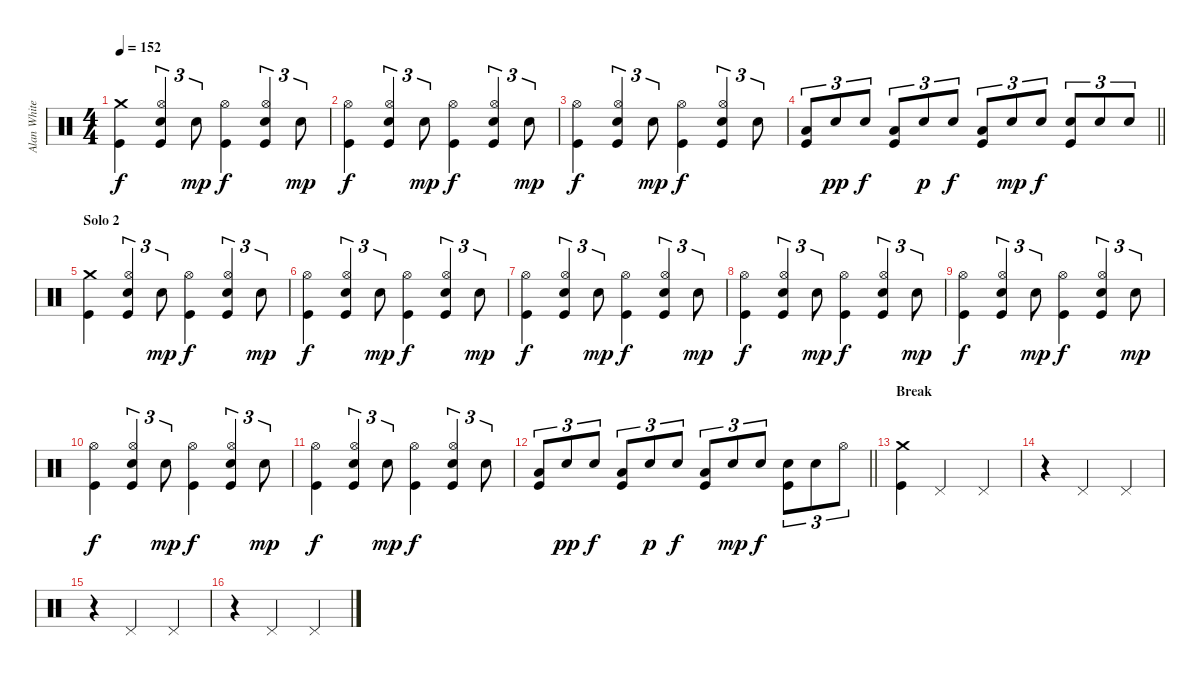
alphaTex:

\track ("Alan White" "Alan White") {instrument percussion}
\staff {score}
\articulation defaults
\ts (4 4)
\tempo 152
\clef neutral
\ks c
("Crash medium (hit)" "Kick (hit)").4{dy f} ("Hi-Hat (open)" "Electric Snare (hit)" "Kick (hit)").4{tu (3 2)} "Electric Snare (hit)".8{tu (3 2) dy mp} ("Hi-Hat (open)" "Kick (hit)").4{dy f} ("Hi-Hat (open)" "Electric Snare (hit)" "Kick (hit)").4{tu (3 2)} "Electric Snare (hit)".8{tu (3 2) dy mp} |
("Hi-Hat (open)" "Kick (hit)").4{dy f} ("Hi-Hat (open)" "Electric Snare (hit)" "Kick (hit)").4{tu (3 2)} "Electric Snare (hit)".8{tu (3 2) dy mp} ("Hi-Hat (open)" "Kick (hit)").4{dy f} ("Hi-Hat (open)" "Electric Snare (hit)" "Kick (hit)").4{tu (3 2)} "Electric Snare (hit)".8{tu (3 2) dy mp} |
("Hi-Hat (open)" "Kick (hit)").4{dy f} ("Hi-Hat (open)" "Electric Snare (hit)" "Kick (hit)").4{tu (3 2)} "Electric Snare (hit)".8{tu (3 2) dy mp} ("Hi-Hat (open)" "Kick (hit)").4{dy f} ("Hi-Hat (open)" "Electric Snare (hit)" "Kick (hit)").4{tu (3 2)} "Electric Snare (hit)".8{tu (3 2)} |
\barLineRight lightlight
("Low Tom (hit)" "Kick (hit)").8{tu (3 2)} "Electric Snare (hit)".8{tu (3 2) dy pp} "Electric Snare (hit)".8{tu (3 2) dy f} ("Low Tom (hit)" "Kick (hit)").8{tu (3 2)} "Electric Snare (hit)".8{tu (3 2) dy p} "Electric Snare (hit)".8{tu (3 2) dy f} ("Low Floor Tom (hit)" "Kick (hit)").8{tu (3 2)} "Electric Snare (hit)".8{tu (3 2) dy mp} "Electric Snare (hit)".8{tu (3 2) dy f} ("Electric Snare (hit)" "Kick (hit)").8{tu (3 2)} "Electric Snare (hit)".8{tu (3 2)} "Electric Snare (hit)".8{tu (3 2)} |
\section ("" "Solo 2")
("Crash medium (hit)" "Kick (hit)").4 ("Hi-Hat (open)" "Electric Snare (hit)" "Kick (hit)").4{tu (3 2)} "Electric Snare (hit)".8{tu (3 2) dy mp} ("Hi-Hat (open)" "Kick (hit)").4{dy f} ("Hi-Hat (open)" "Electric Snare (hit)" "Kick (hit)").4{tu (3 2)} "Electric Snare (hit)".8{tu (3 2) dy mp} |
("Hi-Hat (open)" "Kick (hit)").4{dy f} ("Hi-Hat (open)" "Electric Snare (hit)" "Kick (hit)").4{tu (3 2)} "Electric Snare (hit)".8{tu (3 2) dy mp} ("Hi-Hat (open)" "Kick (hit)").4{dy f} ("Hi-Hat (open)" "Electric Snare (hit)" "Kick (hit)").4{tu (3 2)} "Electric Snare (hit)".8{tu (3 2) dy mp} |
("Hi-Hat (open)" "Kick (hit)").4{dy f} ("Hi-Hat (open)" "Electric Snare (hit)" "Kick (hit)").4{tu (3 2)} "Electric Snare (hit)".8{tu (3 2) dy mp} ("Hi-Hat (open)" "Kick (hit)").4{dy f} ("Hi-Hat (open)" "Electric Snare (hit)" "Kick (hit)").4{tu (3 2)} "Electric Snare (hit)".8{tu (3 2) dy mp} |
("Hi-Hat (open)" "Kick (hit)").4{dy f} ("Hi-Hat (open)" "Electric Snare (hit)" "Kick (hit)").4{tu (3 2)} "Electric Snare (hit)".8{tu (3 2) dy mp} ("Hi-Hat (open)" "Kick (hit)").4{dy f} ("Hi-Hat (open)" "Electric Snare (hit)" "Kick (hit)").4{tu (3 2)} "Electric Snare (hit)".8{tu (3 2) dy mp} |
("Hi-Hat (open)" "Kick (hit)").4{dy f} ("Hi-Hat (open)" "Electric Snare (hit)" "Kick (hit)").4{tu (3 2)} "Electric Snare (hit)".8{tu (3 2) dy mp} ("Hi-Hat (open)" "Kick (hit)").4{dy f} ("Hi-Hat (open)" "Electric Snare (hit)" "Kick (hit)").4{tu (3 2)} "Electric Snare (hit)".8{tu (3 2) dy mp} |
("Hi-Hat (open)" "Kick (hit)").4{dy f} ("Hi-Hat (open)" "Electric Snare (hit)" "Kick (hit)").4{tu (3 2)} "Electric Snare (hit)".8{tu (3 2) dy mp} ("Hi-Hat (open)" "Kick (hit)").4{dy f} ("Hi-Hat (open)" "Electric Snare (hit)" "Kick (hit)").4{tu (3 2)} "Electric Snare (hit)".8{tu (3 2) dy mp} |
("Hi-Hat (open)" "Kick (hit)").4{dy f} ("Hi-Hat (open)" "Electric Snare (hit)" "Kick (hit)").4{tu (3 2)} "Electric Snare (hit)".8{tu (3 2) dy mp} ("Hi-Hat (open)" "Kick (hit)").4{dy f} ("Hi-Hat (open)" "Electric Snare (hit)" "Kick (hit)").4{tu (3 2)} "Electric Snare (hit)".8{tu (3 2)} |
\barLineRight lightlight
("Low Tom (hit)" "Kick (hit)").8{tu (3 2)} "Electric Snare (hit)".8{tu (3 2) dy pp} "Electric Snare (hit)".8{tu (3 2) dy f} ("Low Tom (hit)" "Kick (hit)").8{tu (3 2)} "Electric Snare (hit)".8{tu (3 2) dy p} "Electric Snare (hit)".8{tu (3 2) dy f} ("Low Floor Tom (hit)" "Kick (hit)").8{tu (3 2)} "Electric Snare (hit)".8{tu (3 2) dy mp} "Electric Snare (hit)".8{tu (3 2) dy f} ("Electric Snare (hit)" "Kick (hit)").8{tu (3 2)} "Electric Snare (hit)".8{tu (3 2)} "Hi-Hat (open)".8{tu (3 2)} |
\section ("" "Break")
("Crash medium (hit)" "Kick (hit)").4 "Pedal Hi-Hat (hit)".2 "Pedal Hi-Hat (hit)".4 |
r.4 "Pedal Hi-Hat (hit)".2 "Pedal Hi-Hat (hit)".4 |
r.4 "Pedal Hi-Hat (hit)".2 "Pedal Hi-Hat (hit)".4 |
r.4 "Pedal Hi-Hat (hit)".2 "Pedal Hi-Hat (hit)".4
